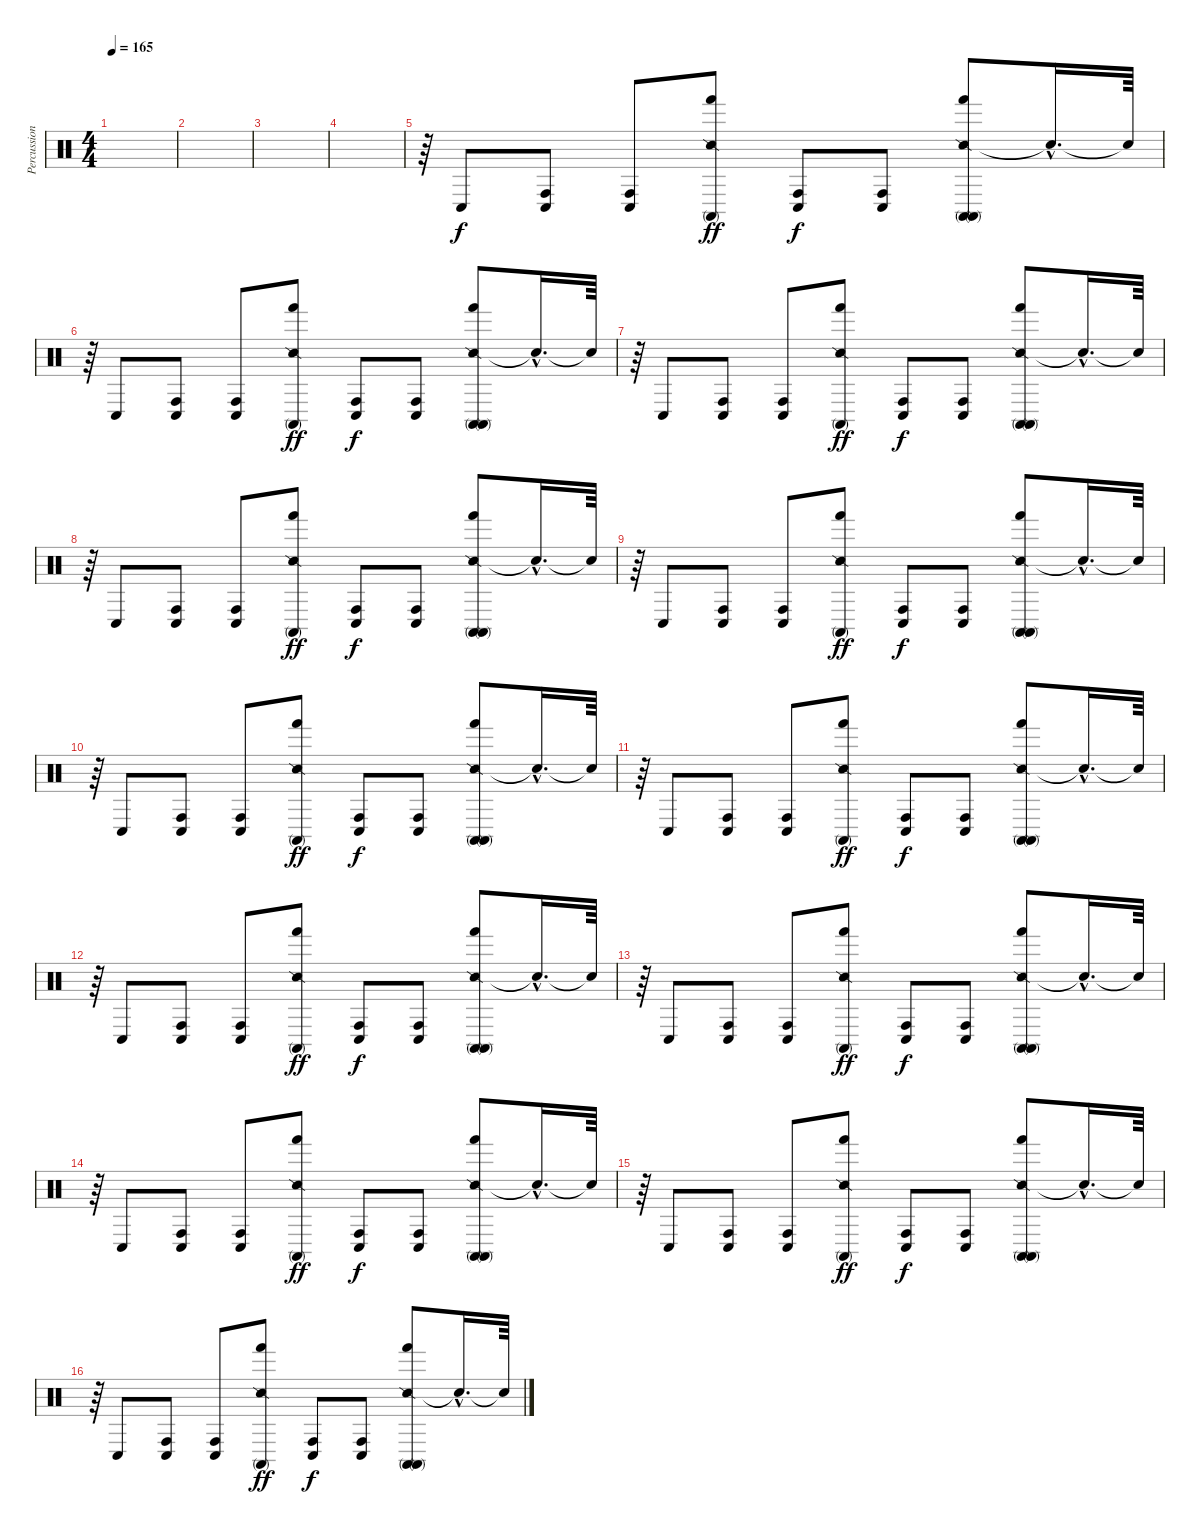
\track ("Percussion" "Percussion") {instrument percussion}
\staff {score}
\articulation defaults
\ts (4 4)
\tempo 165
\clef neutral
\ks c
|
|
|
|
r.64 "Conga low (hit)".8 ("Conga high (hit)" "Conga low (hit)").8 ("Conga high (hit)" "Conga low (hit)").8 ("Snare (side stick) 2" "Hand (hit)" "Conga high (mute)").8{dy ff} ("Conga high (hit)" "Conga low (hit)").8{dy f} ("Conga high (hit)" "Conga low (hit)").8 ("Snare (side stick) 2" "Hand (hit)" "Conga high (mute)" "Conga high (mute)").8 "Snare (hit)"{hac t}.16{d} "Snare (hit)"{t}.64 |
r.64 "Conga low (hit)".8 ("Conga high (hit)" "Conga low (hit)").8 ("Conga high (hit)" "Conga low (hit)").8 ("Snare (side stick) 2" "Hand (hit)" "Conga high (mute)").8{dy ff} ("Conga high (hit)" "Conga low (hit)").8{dy f} ("Conga high (hit)" "Conga low (hit)").8 ("Snare (side stick) 2" "Hand (hit)" "Conga high (mute)" "Conga high (mute)").8 "Snare (hit)"{hac t}.16{d} "Snare (hit)"{t}.64 |
r.64 "Conga low (hit)".8 ("Conga high (hit)" "Conga low (hit)").8 ("Conga high (hit)" "Conga low (hit)").8 ("Snare (side stick) 2" "Hand (hit)" "Conga high (mute)").8{dy ff} ("Conga high (hit)" "Conga low (hit)").8{dy f} ("Conga high (hit)" "Conga low (hit)").8 ("Snare (side stick) 2" "Hand (hit)" "Conga high (mute)" "Conga high (mute)").8 "Snare (hit)"{hac t}.16{d} "Snare (hit)"{t}.64 |
r.64 "Conga low (hit)".8 ("Conga high (hit)" "Conga low (hit)").8 ("Conga high (hit)" "Conga low (hit)").8 ("Snare (side stick) 2" "Hand (hit)" "Conga high (mute)").8{dy ff} ("Conga high (hit)" "Conga low (hit)").8{dy f} ("Conga high (hit)" "Conga low (hit)").8 ("Snare (side stick) 2" "Hand (hit)" "Conga high (mute)" "Conga high (mute)").8 "Snare (hit)"{hac t}.16{d} "Snare (hit)"{t}.64 |
r.64 "Conga low (hit)".8 ("Conga high (hit)" "Conga low (hit)").8 ("Conga high (hit)" "Conga low (hit)").8 ("Snare (side stick) 2" "Hand (hit)" "Conga high (mute)").8{dy ff} ("Conga high (hit)" "Conga low (hit)").8{dy f} ("Conga high (hit)" "Conga low (hit)").8 ("Snare (side stick) 2" "Hand (hit)" "Conga high (mute)" "Conga high (mute)").8 "Snare (hit)"{hac t}.16{d} "Snare (hit)"{t}.64 |
r.64 "Conga low (hit)".8 ("Conga high (hit)" "Conga low (hit)").8 ("Conga high (hit)" "Conga low (hit)").8 ("Snare (side stick) 2" "Hand (hit)" "Conga high (mute)").8{dy ff} ("Conga high (hit)" "Conga low (hit)").8{dy f} ("Conga high (hit)" "Conga low (hit)").8 ("Snare (side stick) 2" "Hand (hit)" "Conga high (mute)" "Conga high (mute)").8 "Snare (hit)"{hac t}.16{d} "Snare (hit)"{t}.64 |
r.64 "Conga low (hit)".8 ("Conga high (hit)" "Conga low (hit)").8 ("Conga high (hit)" "Conga low (hit)").8 ("Snare (side stick) 2" "Hand (hit)" "Conga high (mute)").8{dy ff} ("Conga high (hit)" "Conga low (hit)").8{dy f} ("Conga high (hit)" "Conga low (hit)").8 ("Snare (side stick) 2" "Hand (hit)" "Conga high (mute)" "Conga high (mute)").8 "Snare (hit)"{hac t}.16{d} "Snare (hit)"{t}.64 |
r.64 "Conga low (hit)".8 ("Conga high (hit)" "Conga low (hit)").8 ("Conga high (hit)" "Conga low (hit)").8 ("Snare (side stick) 2" "Hand (hit)" "Conga high (mute)").8{dy ff} ("Conga high (hit)" "Conga low (hit)").8{dy f} ("Conga high (hit)" "Conga low (hit)").8 ("Snare (side stick) 2" "Hand (hit)" "Conga high (mute)" "Conga high (mute)").8 "Snare (hit)"{hac t}.16{d} "Snare (hit)"{t}.64 |
r.64 "Conga low (hit)".8 ("Conga high (hit)" "Conga low (hit)").8 ("Conga high (hit)" "Conga low (hit)").8 ("Snare (side stick) 2" "Hand (hit)" "Conga high (mute)").8{dy ff} ("Conga high (hit)" "Conga low (hit)").8{dy f} ("Conga high (hit)" "Conga low (hit)").8 ("Snare (side stick) 2" "Hand (hit)" "Conga high (mute)" "Conga high (mute)").8 "Snare (hit)"{hac t}.16{d} "Snare (hit)"{t}.64 |
r.64 "Conga low (hit)".8 ("Conga high (hit)" "Conga low (hit)").8 ("Conga high (hit)" "Conga low (hit)").8 ("Snare (side stick) 2" "Hand (hit)" "Conga high (mute)").8{dy ff} ("Conga high (hit)" "Conga low (hit)").8{dy f} ("Conga high (hit)" "Conga low (hit)").8 ("Snare (side stick) 2" "Hand (hit)" "Conga high (mute)" "Conga high (mute)").8 "Snare (hit)"{hac t}.16{d} "Snare (hit)"{t}.64 |
r.64 "Conga low (hit)".8 ("Conga high (hit)" "Conga low (hit)").8 ("Conga high (hit)" "Conga low (hit)").8 ("Snare (side stick) 2" "Hand (hit)" "Conga high (mute)").8{dy ff} ("Conga high (hit)" "Conga low (hit)").8{dy f} ("Conga high (hit)" "Conga low (hit)").8 ("Snare (side stick) 2" "Hand (hit)" "Conga high (mute)" "Conga high (mute)").8 "Snare (hit)"{hac t}.16{d} "Snare (hit)"{t}.64 |
r.64 "Conga low (hit)".8 ("Conga high (hit)" "Conga low (hit)").8 ("Conga high (hit)" "Conga low (hit)").8 ("Snare (side stick) 2" "Hand (hit)" "Conga high (mute)").8{dy ff} ("Conga high (hit)" "Conga low (hit)").8{dy f} ("Conga high (hit)" "Conga low (hit)").8 ("Snare (side stick) 2" "Hand (hit)" "Conga high (mute)" "Conga high (mute)").8 "Snare (hit)"{hac t}.16{d} "Snare (hit)"{t}.64
